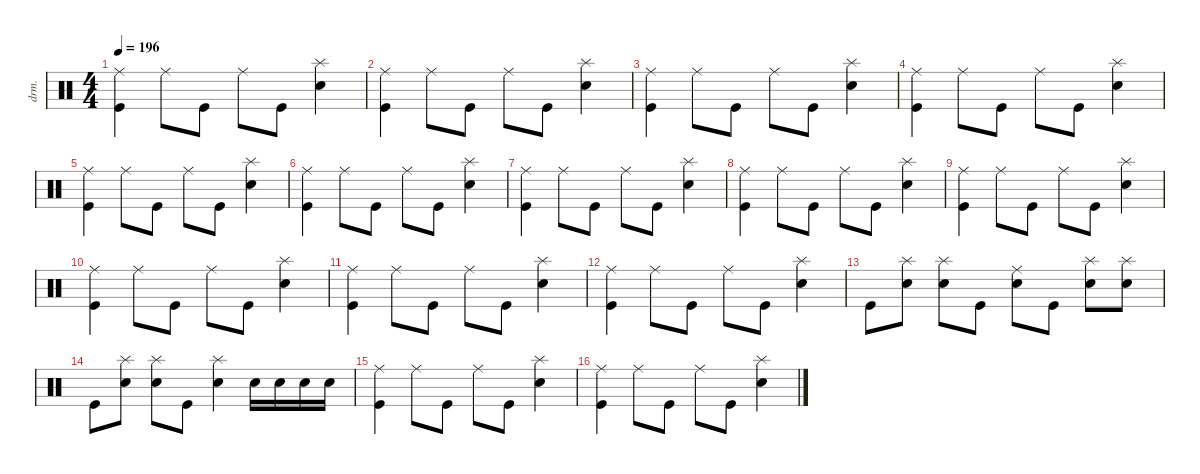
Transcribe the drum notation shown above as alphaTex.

\defaultSystemsLayout 4
\hideDynamics
\bracketExtendMode nobrackets
\otherSystemsTrackNameOrientation horizontal
\track ("Drum" "drm.") {instrument percussion}
\staff {score}
\articulation defaults
\ts (4 4)
\tempo 196
\clef neutral
\ks c
("Kick (hit)" "Ride (middle)").4{dy f beam Down} "Ride (middle)".8{beam Down} "Kick (hit)".8{beam Down} "Ride (middle)".8{beam Down} "Kick (hit)".8{beam Down} ("Snare (hit) 2" "Splash (hit)").4{dy ff beam Down} |
("Kick (hit)" "Ride (middle)").4{dy f beam Down} "Ride (middle)".8{beam Down} "Kick (hit)".8{beam Down} "Ride (middle)".8{beam Down} "Kick (hit)".8{beam Down} ("Snare (hit) 2" "Splash (hit)").4{dy ff beam Down} |
("Kick (hit)" "Ride (middle)").4{dy f beam Down} "Ride (middle)".8{beam Down} "Kick (hit)".8{beam Down} "Ride (middle)".8{beam Down} "Kick (hit)".8{beam Down} ("Snare (hit) 2" "Splash (hit)").4{dy ff beam Down} |
("Kick (hit)" "Ride (middle)").4{dy f beam Down} "Ride (middle)".8{beam Down} "Kick (hit)".8{beam Down} "Ride (middle)".8{beam Down} "Kick (hit)".8{beam Down} ("Snare (hit) 2" "Splash (hit)").4{dy ff beam Down} |
("Kick (hit)" "Ride (middle)").4{dy f beam Down} "Ride (middle)".8{beam Down} "Kick (hit)".8{beam Down} "Ride (middle)".8{beam Down} "Kick (hit)".8{beam Down} ("Snare (hit) 2" "Splash (hit)").4{dy ff beam Down} |
("Kick (hit)" "Ride (middle)").4{dy f beam Down} "Ride (middle)".8{beam Down} "Kick (hit)".8{beam Down} "Ride (middle)".8{beam Down} "Kick (hit)".8{beam Down} ("Snare (hit) 2" "Splash (hit)").4{dy ff beam Down} |
("Kick (hit)" "Ride (middle)").4{dy f beam Down} "Ride (middle)".8{beam Down} "Kick (hit)".8{beam Down} "Ride (middle)".8{beam Down} "Kick (hit)".8{beam Down} ("Snare (hit) 2" "Splash (hit)").4{dy ff beam Down} |
("Kick (hit)" "Ride (middle)").4{dy f beam Down} "Ride (middle)".8{beam Down} "Kick (hit)".8{beam Down} "Ride (middle)".8{beam Down} "Kick (hit)".8{beam Down} ("Snare (hit) 2" "Splash (hit)").4{dy ff beam Down} |
("Kick (hit)" "Ride (middle)").4{dy f beam Down} "Ride (middle)".8{beam Down} "Kick (hit)".8{beam Down} "Ride (middle)".8{beam Down} "Kick (hit)".8{beam Down} ("Snare (hit) 2" "Splash (hit)").4{dy ff beam Down} |
("Kick (hit)" "Ride (middle)").4{dy f beam Down} "Ride (middle)".8{beam Down} "Kick (hit)".8{beam Down} "Ride (middle)".8{beam Down} "Kick (hit)".8{beam Down} ("Snare (hit) 2" "Splash (hit)").4{dy ff beam Down} |
("Kick (hit)" "Ride (middle)").4{dy f beam Down} "Ride (middle)".8{beam Down} "Kick (hit)".8{beam Down} "Ride (middle)".8{beam Down} "Kick (hit)".8{beam Down} ("Snare (hit) 2" "Splash (hit)").4{dy ff beam Down} |
("Kick (hit)" "Ride (middle)").4{dy f beam Down} "Ride (middle)".8{beam Down} "Kick (hit)".8{beam Down} "Ride (middle)".8{beam Down} "Kick (hit)".8{beam Down} ("Snare (hit) 2" "Splash (hit)").4{dy ff beam Down} |
"Kick (hit)".8{dy f beam Down} ("Snare (hit) 2" "Splash (hit)").8{dy ff beam Down} ("Snare (hit) 2" "Splash (hit)").8{beam Down} "Kick (hit)".8{dy f beam Down} ("Snare (hit) 2" "Ride (middle)").8{dy ff beam Down} "Kick (hit)".8{dy f beam Down} ("Snare (hit) 2" "Splash (hit)").8{dy ff beam Down} ("Snare (hit) 2" "Splash (hit)").8{beam Down} |
"Kick (hit)".8{dy f beam Down} ("Snare (hit) 2" "Splash (hit)").8{dy ff beam Down} ("Snare (hit) 2" "Splash (hit)").8{beam Down} "Kick (hit)".8{dy f beam Down} ("Snare (hit) 2" "Splash (hit)").4{dy ff beam Down} "Snare (hit) 2".16{beam Down} "Snare (hit) 2".16{dy f beam Down} "Snare (hit) 2".16{dy ff beam Down} "Snare (hit) 2".16{dy f beam Down} |
("Kick (hit)" "Ride (middle)").4{beam Down} "Ride (middle)".8{beam Down} "Kick (hit)".8{beam Down} "Ride (middle)".8{beam Down} "Kick (hit)".8{beam Down} ("Snare (hit) 2" "Splash (hit)").4{dy ff beam Down} |
("Kick (hit)" "Ride (middle)").4{dy f beam Down} "Ride (middle)".8{beam Down} "Kick (hit)".8{beam Down} "Ride (middle)".8{beam Down} "Kick (hit)".8{beam Down} ("Snare (hit) 2" "Splash (hit)").4{dy ff beam Down}
